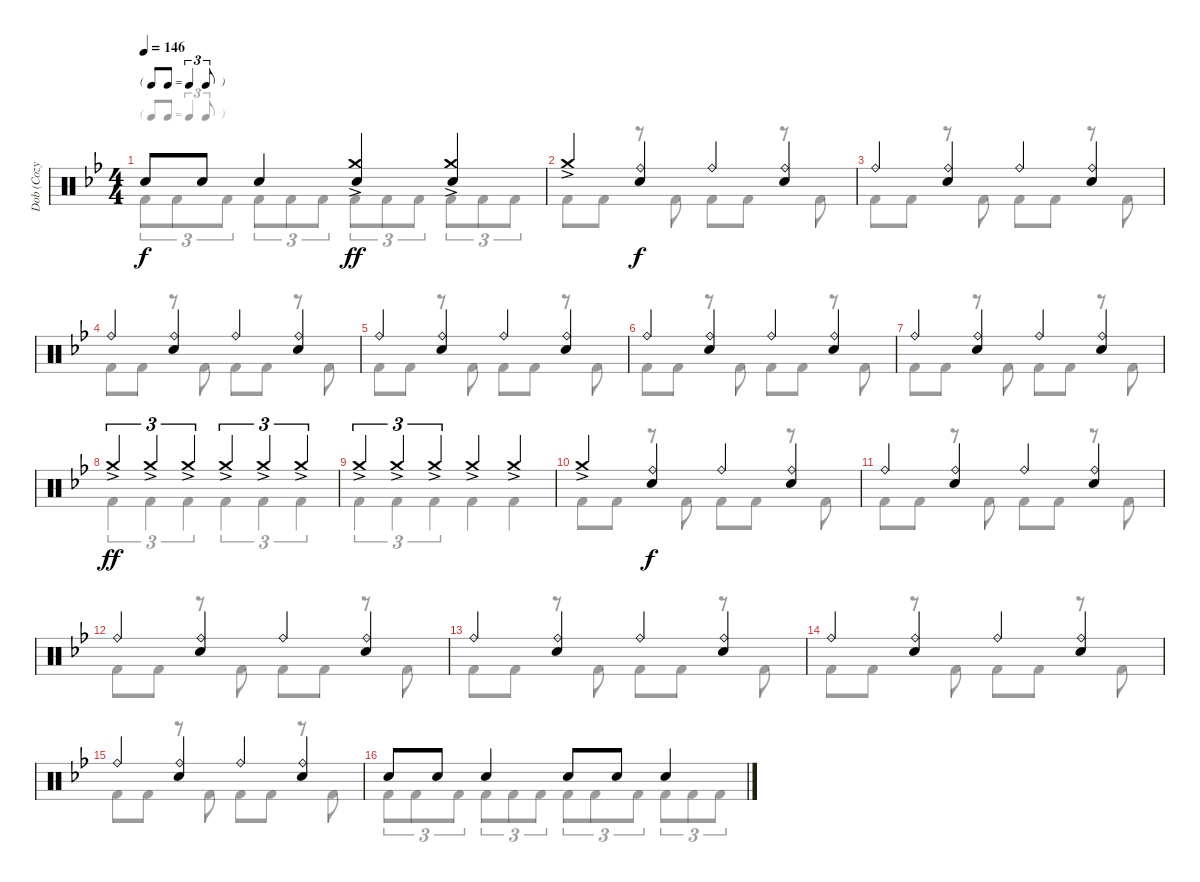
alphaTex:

\track ("Dob (Cozy Powell)" "Dob (Cozy ") {instrument percussion}
\staff {score}
\articulation defaults
\voice
\ts (4 4)
\tf triplet8th
\tempo 146
\clef neutral
\ks bb "Electric Snare (hit)".8{dy f} "Electric Snare (hit)".8 "Electric Snare (hit)".4
("Crash medium (hit)"{ac} "Electric Snare (hit)").4{dy ff} ("Crash medium (hit)"{ac} "Electric Snare (hit)").4 |
"Crash medium (hit)"{ac}.4 ("Ride (bell)" "Electric Snare (hit)").4{dy f} "Ride (bell)".4 ("Ride (bell)" "Electric Snare (hit)").4 |
"Ride (bell)".4 ("Ride (bell)" "Electric Snare (hit)").4 "Ride (bell)".4 ("Ride (bell)" "Electric Snare (hit)").4 |
"Ride (bell)".4 ("Ride (bell)" "Electric Snare (hit)").4 "Ride (bell)".4 ("Ride (bell)" "Electric Snare (hit)").4 |
"Ride (bell)".4 ("Ride (bell)" "Electric Snare (hit)").4 "Ride (bell)".4 ("Ride (bell)" "Electric Snare (hit)").4 |
"Ride (bell)".4 ("Ride (bell)" "Electric Snare (hit)").4 "Ride (bell)".4 ("Ride (bell)" "Electric Snare (hit)").4 |
"Ride (bell)".4 ("Ride (bell)" "Electric Snare (hit)").4 "Ride (bell)".4 ("Ride (bell)" "Electric Snare (hit)").4 |
"Crash medium (hit)"{ac}.4{tu (3 2) dy ff} "Crash medium (hit)"{ac}.4{tu (3 2)} "Crash medium (hit)"{ac}.4{tu (3 2)} "Crash medium (hit)"{ac}.4{tu (3 2)} "Crash medium (hit)"{ac}.4{tu (3 2)} "Crash medium (hit)"{ac}.4{tu (3 2)} |
"Crash medium (hit)"{ac}.4{tu (3 2)} "Crash medium (hit)"{ac}.4{tu (3 2)} "Crash medium (hit)"{ac}.4{tu (3 2)} "Crash medium (hit)"{ac}.4 "Crash medium (hit)"{ac}.4 |
"Crash medium (hit)"{ac}.4 ("Ride (bell)" "Electric Snare (hit)").4{dy f} "Ride (bell)".4 ("Ride (bell)" "Electric Snare (hit)").4 |
"Ride (bell)".4 ("Ride (bell)" "Electric Snare (hit)").4 "Ride (bell)".4 ("Ride (bell)" "Electric Snare (hit)").4 |
"Ride (bell)".4 ("Ride (bell)" "Electric Snare (hit)").4 "Ride (bell)".4 ("Ride (bell)" "Electric Snare (hit)").4 |
"Ride (bell)".4 ("Ride (bell)" "Electric Snare (hit)").4 "Ride (bell)".4 ("Ride (bell)" "Electric Snare (hit)").4 |
"Ride (bell)".4 ("Ride (bell)" "Electric Snare (hit)").4 "Ride (bell)".4 ("Ride (bell)" "Electric Snare (hit)").4 |
"Ride (bell)".4 ("Ride (bell)" "Electric Snare (hit)").4 "Ride (bell)".4 ("Ride (bell)" "Electric Snare (hit)").4 |
"Electric Snare (hit)".8 "Electric Snare (hit)".8 "Electric Snare (hit)".4 "Electric Snare (hit)".8 "Electric Snare (hit)".8 "Electric Snare (hit)".4
\voice
\clef neutral
\ottava regular
\simile none
\ks bb "Kick (hit) 2".8{tu (3 2) dy f} "Kick (hit) 2".8{tu (3 2)} "Kick (hit) 2".8{tu (3 2)} "Kick (hit) 2".8{tu (3 2)} "Kick (hit) 2".8{tu (3 2)} "Kick (hit) 2".8{tu (3 2)} "Kick (hit) 2".8{tu (3 2)} "Kick (hit) 2".8{tu (3 2)} "Kick (hit) 2".8{tu (3 2)} "Kick (hit) 2".8{tu (3 2)} "Kick (hit) 2".8{tu (3 2)} "Kick (hit) 2".8{tu (3 2)}
|
"Kick (hit) 2".8 "Kick (hit) 2".8 r.8 "Kick (hit) 2".8 "Kick (hit) 2".8 "Kick (hit) 2".8 r.8 "Kick (hit) 2".8 |
"Kick (hit) 2".8 "Kick (hit) 2".8 r.8 "Kick (hit) 2".8 "Kick (hit) 2".8 "Kick (hit) 2".8 r.8 "Kick (hit) 2".8 |
"Kick (hit) 2".8 "Kick (hit) 2".8 r.8 "Kick (hit) 2".8 "Kick (hit) 2".8 "Kick (hit) 2".8 r.8 "Kick (hit) 2".8 |
"Kick (hit) 2".8 "Kick (hit) 2".8 r.8 "Kick (hit) 2".8 "Kick (hit) 2".8 "Kick (hit) 2".8 r.8 "Kick (hit) 2".8 |
"Kick (hit) 2".8 "Kick (hit) 2".8 r.8 "Kick (hit) 2".8 "Kick (hit) 2".8 "Kick (hit) 2".8 r.8 "Kick (hit) 2".8 |
"Kick (hit) 2".8 "Kick (hit) 2".8 r.8 "Kick (hit) 2".8 "Kick (hit) 2".8 "Kick (hit) 2".8 r.8 "Kick (hit) 2".8 |
"Kick (hit) 2".4{tu (3 2)} "Kick (hit) 2".4{tu (3 2)} "Kick (hit) 2".4{tu (3 2)} "Kick (hit) 2".4{tu (3 2)} "Kick (hit) 2".4{tu (3 2)} "Kick (hit) 2".4{tu (3 2)} |
"Kick (hit) 2".4{tu (3 2)} "Kick (hit) 2".4{tu (3 2)} "Kick (hit) 2".4{tu (3 2)} "Kick (hit) 2".4 "Kick (hit) 2".4 |
"Kick (hit) 2".8 "Kick (hit) 2".8 r.8 "Kick (hit) 2".8 "Kick (hit) 2".8 "Kick (hit) 2".8 r.8 "Kick (hit) 2".8 |
"Kick (hit) 2".8 "Kick (hit) 2".8 r.8 "Kick (hit) 2".8 "Kick (hit) 2".8 "Kick (hit) 2".8 r.8 "Kick (hit) 2".8 |
"Kick (hit) 2".8 "Kick (hit) 2".8 r.8 "Kick (hit) 2".8 "Kick (hit) 2".8 "Kick (hit) 2".8 r.8 "Kick (hit) 2".8 |
"Kick (hit) 2".8 "Kick (hit) 2".8 r.8 "Kick (hit) 2".8 "Kick (hit) 2".8 "Kick (hit) 2".8 r.8 "Kick (hit) 2".8 |
"Kick (hit) 2".8 "Kick (hit) 2".8 r.8 "Kick (hit) 2".8 "Kick (hit) 2".8 "Kick (hit) 2".8 r.8 "Kick (hit) 2".8 |
"Kick (hit) 2".8 "Kick (hit) 2".8 r.8 "Kick (hit) 2".8 "Kick (hit) 2".8 "Kick (hit) 2".8 r.8 "Kick (hit) 2".8 |
"Kick (hit) 2".8{tu (3 2)} "Kick (hit) 2".8{tu (3 2)} "Kick (hit) 2".8{tu (3 2)} "Kick (hit) 2".8{tu (3 2)} "Kick (hit) 2".8{tu (3 2)} "Kick (hit) 2".8{tu (3 2)} "Kick (hit) 2".8{tu (3 2)} "Kick (hit) 2".8{tu (3 2)} "Kick (hit) 2".8{tu (3 2)} "Kick (hit) 2".8{tu (3 2)} "Kick (hit) 2".8{tu (3 2)} "Kick (hit) 2".8{tu (3 2)}
